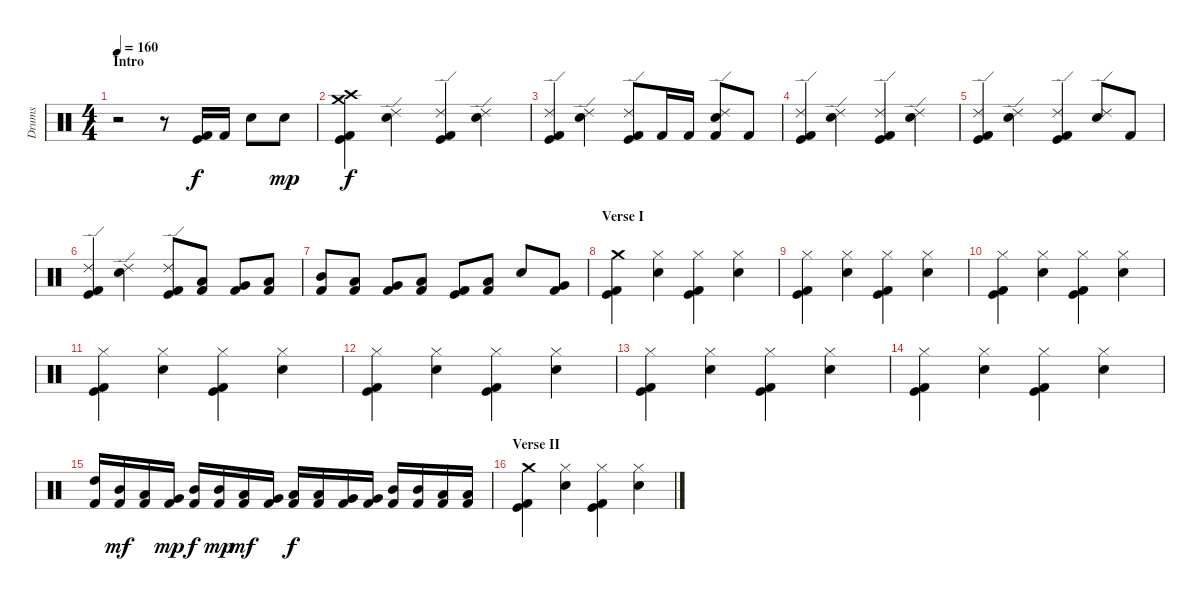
\track ("Drums" "Drums") {instrument percussion}
\staff {score}
\articulation defaults
\ts (4 4)
\section ("" "Intro")
\tempo 160
\clef neutral
\ks c
r.2{dy f} r.8 ("Kick (hit)" "Kick (hit) 2").16 "Kick (hit) 2".16 "Snare (hit) 2".8 "Snare (hit) 2".8{dy mp} |
("Crash medium (hit)" "Crash high (hit)" "Kick (hit)" "Kick (hit) 2").4{dy f} ("Ride (edge) 2" "Snare (hit) 2").4 ("Ride (edge) 2" "Kick (hit)" "Kick (hit) 2").4 ("Ride (edge) 2" "Snare (hit) 2").4 |
("Ride (edge) 2" "Kick (hit)" "Kick (hit) 2").4 ("Ride (edge) 2" "Snare (hit) 2").4 ("Ride (edge) 2" "Kick (hit)" "Kick (hit) 2").8 "Kick (hit) 2".16 "Kick (hit) 2".16 ("Ride (edge) 2" "Snare (hit) 2" "Kick (hit) 2").8 "Kick (hit) 2".8 |
("Ride (edge) 2" "Kick (hit)" "Kick (hit) 2").4 ("Ride (edge) 2" "Snare (hit) 2").4 ("Ride (edge) 2" "Kick (hit)" "Kick (hit) 2").4 ("Ride (edge) 2" "Snare (hit) 2").4 |
("Ride (edge) 2" "Kick (hit)" "Kick (hit) 2").4 ("Ride (edge) 2" "Snare (hit) 2").4 ("Ride (edge) 2" "Kick (hit)" "Kick (hit) 2").4 ("Ride (edge) 2" "Snare (hit) 2").8 "Kick (hit) 2".8 |
("Ride (edge) 2" "Kick (hit)" "Kick (hit) 2").4 ("Ride (edge) 2" "Snare (hit) 2").4 ("Ride (edge) 2" "Kick (hit)" "Kick (hit) 2").8 ("Low Tom (hit)" "Kick (hit) 2").8 ("Very Low Tom (hit)" "Kick (hit) 2").8 ("Low Floor Tom (hit)" "Kick (hit) 2").8 |
("Mid Tom (hit)" "Kick (hit) 2").8 ("Low Tom (hit)" "Kick (hit) 2").8 ("Very Low Tom (hit)" "Kick (hit) 2").8 ("Low Floor Tom (hit)" "Kick (hit) 2").8 ("Kick (hit)" "Kick (hit) 2").8 ("Low Floor Tom (hit)" "Kick (hit) 2").8 "Snare (hit) 2".8 ("Very Low Tom (hit)" "Kick (hit) 2").8 |
\section ("" "Verse I")
("Crash medium (hit)" "Kick (hit)" "Kick (hit) 2").4 ("Hi-Hat (closed)" "Snare (hit) 2").4 ("Hi-Hat (closed)" "Kick (hit)" "Kick (hit) 2").4 ("Hi-Hat (closed)" "Snare (hit) 2").4 |
("Hi-Hat (closed)" "Kick (hit)" "Kick (hit) 2").4 ("Hi-Hat (closed)" "Snare (hit) 2").4 ("Hi-Hat (closed)" "Kick (hit)" "Kick (hit) 2").4 ("Hi-Hat (closed)" "Snare (hit) 2").4 |
("Hi-Hat (closed)" "Kick (hit)" "Kick (hit) 2").4 ("Hi-Hat (closed)" "Snare (hit) 2").4 ("Hi-Hat (closed)" "Kick (hit)" "Kick (hit) 2").4 ("Hi-Hat (closed)" "Snare (hit) 2").4 |
("Hi-Hat (closed)" "Kick (hit)" "Kick (hit) 2").4 ("Hi-Hat (closed)" "Snare (hit) 2").4 ("Hi-Hat (closed)" "Kick (hit)" "Kick (hit) 2").4 ("Hi-Hat (closed)" "Snare (hit) 2").4 |
("Hi-Hat (closed)" "Kick (hit)" "Kick (hit) 2").4 ("Hi-Hat (closed)" "Snare (hit) 2").4 ("Hi-Hat (closed)" "Kick (hit)" "Kick (hit) 2").4 ("Hi-Hat (closed)" "Snare (hit) 2").4 |
("Hi-Hat (closed)" "Kick (hit)" "Kick (hit) 2").4 ("Hi-Hat (closed)" "Snare (hit) 2").4 ("Hi-Hat (closed)" "Kick (hit)" "Kick (hit) 2").4 ("Hi-Hat (closed)" "Snare (hit) 2").4 |
("Hi-Hat (closed)" "Kick (hit)" "Kick (hit) 2").4 ("Hi-Hat (closed)" "Snare (hit) 2").4 ("Hi-Hat (closed)" "Kick (hit)" "Kick (hit) 2").4 ("Hi-Hat (closed)" "Snare (hit) 2").4 |
("High Tom (hit)" "Kick (hit) 2").16 ("Mid Tom (hit)" "Kick (hit) 2").16{dy mf} ("Low Tom (hit)" "Kick (hit) 2").16 ("Very Low Tom (hit)" "Kick (hit) 2").16{dy mp} ("Mid Tom (hit)" "Kick (hit) 2").16{dy f} ("Mid Tom (hit)" "Kick (hit) 2").16{dy mp} ("Low Tom (hit)" "Kick (hit) 2").16{dy mf} ("Very Low Tom (hit)" "Kick (hit) 2").16 ("Low Tom (hit)" "Kick (hit) 2").16{dy f} ("Low Tom (hit)" "Kick (hit) 2").16 ("Very Low Tom (hit)" "Kick (hit) 2").16 ("Very Low Tom (hit)" "Kick (hit) 2").16 ("Mid Tom (hit)" "Kick (hit) 2").16 ("Mid Tom (hit)" "Kick (hit) 2").16 ("Low Tom (hit)" "Kick (hit) 2").16 ("Low Tom (hit)" "Kick (hit) 2").16 |
\section ("" "Verse II")
("Crash medium (hit)" "Kick (hit)" "Kick (hit) 2").4 ("Hi-Hat (closed)" "Snare (hit) 2").4 ("Hi-Hat (closed)" "Kick (hit)" "Kick (hit) 2").4 ("Hi-Hat (closed)" "Snare (hit) 2").4
